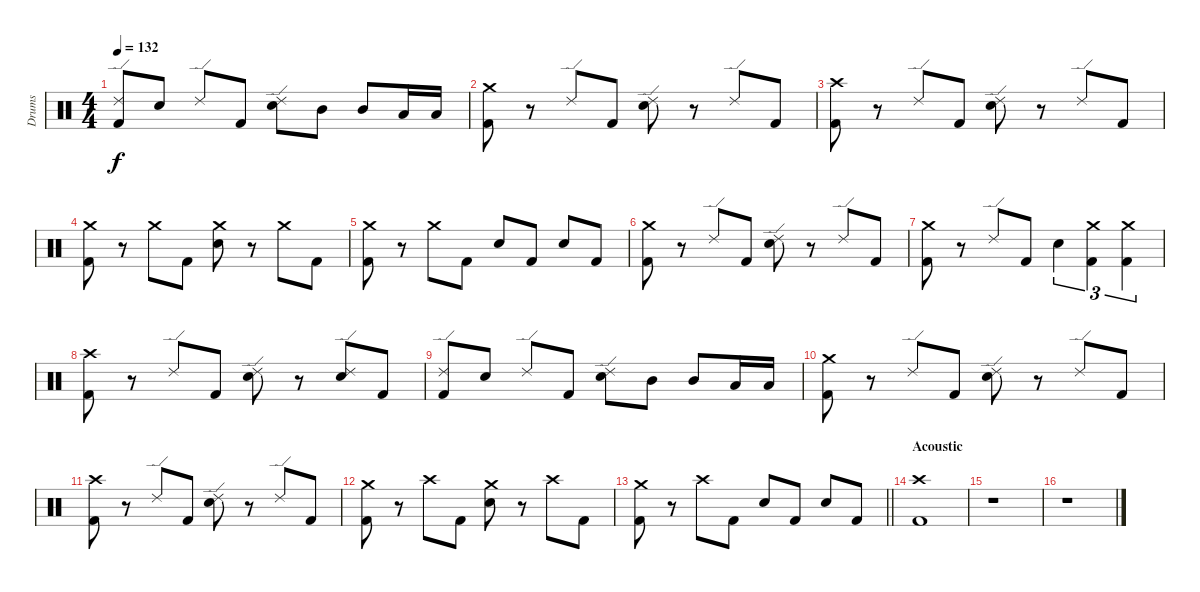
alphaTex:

\track ("Drums" "Drums") {instrument percussion}
\staff {score}
\articulation defaults
\ts (4 4)
\tempo 132
\clef neutral
\ks c
("Ride (edge) 2" "Kick (hit) 2").8{dy f} "Snare (hit) 2".8 "Ride (edge) 2".8 "Kick (hit) 2".8 ("Ride (edge) 2" "Snare (hit) 2").8 "Mid Tom (hit)".8 "Mid Tom (hit)".8 "Low Tom (hit)".16 "Low Tom (hit)".16 |
("Crash medium (hit)" "Kick (hit) 2").8 r.8 "Ride (edge) 2".8 "Kick (hit) 2".8 ("Ride (edge) 2" "Snare (hit) 2").8 r.8 "Ride (edge) 2".8 "Kick (hit) 2".8 |
("Crash high (hit)" "Kick (hit) 2").8 r.8 "Ride (edge) 2".8 "Kick (hit) 2".8 ("Ride (edge) 2" "Snare (hit) 2").8 r.8 "Ride (edge) 2".8 "Kick (hit) 2".8 |
("Crash medium (hit)" "Kick (hit) 2").8 r.8 "Crash medium (hit)".8 "Kick (hit) 2".8 ("Crash medium (hit)" "Snare (hit) 2").8 r.8 "Crash medium (hit)".8 "Kick (hit) 2".8 |
("Crash medium (hit)" "Kick (hit) 2").8 r.8 "Crash medium (hit)".8 "Kick (hit) 2".8 "Snare (hit) 2".8 "Kick (hit) 2".8 "Snare (hit) 2".8 "Kick (hit) 2".8 |
("Crash medium (hit)" "Kick (hit) 2").8 r.8 "Ride (edge) 2".8 "Kick (hit) 2".8 ("Ride (edge) 2" "Snare (hit) 2").8 r.8 "Ride (edge) 2".8 "Kick (hit) 2".8 |
("Crash medium (hit)" "Kick (hit) 2").8 r.8 "Ride (edge) 2".8 "Kick (hit) 2".8 "Snare (hit) 2".4{tu (3 2)} ("Crash medium (hit)" "Kick (hit) 2").4{tu (3 2)} ("Crash medium (hit)" "Kick (hit) 2").4{tu (3 2)} |
("Crash high (hit)" "Kick (hit) 2").8 r.8 "Ride (edge) 2".8 "Kick (hit) 2".8 ("Ride (edge) 2" "Snare (hit) 2").8 r.8 ("Ride (edge) 2" "Snare (hit) 2").8 "Kick (hit) 2".8 |
("Ride (edge) 2" "Kick (hit) 2").8 "Snare (hit) 2".8 "Ride (edge) 2".8 "Kick (hit) 2".8 ("Ride (edge) 2" "Snare (hit) 2").8 "Mid Tom (hit)".8 "Mid Tom (hit)".8 "Low Tom (hit)".16 "Low Tom (hit)".16 |
("Crash medium (hit)" "Kick (hit) 2").8 r.8 "Ride (edge) 2".8 "Kick (hit) 2".8 ("Ride (edge) 2" "Snare (hit) 2").8 r.8 "Ride (edge) 2".8 "Kick (hit) 2".8 |
("Crash high (hit)" "Kick (hit) 2").8 r.8 "Ride (edge) 2".8 "Kick (hit) 2".8 ("Ride (edge) 2" "Snare (hit) 2").8 r.8 "Ride (edge) 2".8 "Kick (hit) 2".8 |
("Crash medium (hit)" "Kick (hit) 2").8 r.8 "Crash high (hit)".8 "Kick (hit) 2".8 ("Crash medium (hit)" "Snare (hit) 2").8 r.8 "Crash high (hit)".8 "Kick (hit) 2".8 |
\barLineRight lightlight
("Crash medium (hit)" "Kick (hit) 2").8 r.8 "Crash high (hit)".8 "Kick (hit) 2".8 "Snare (hit) 2".8 "Kick (hit) 2".8 "Snare (hit) 2".8 "Kick (hit) 2".8 |
\section ("" "Acoustic")
("Crash high (hit)" "Kick (hit) 2").1 |
r.1 |
r.1
